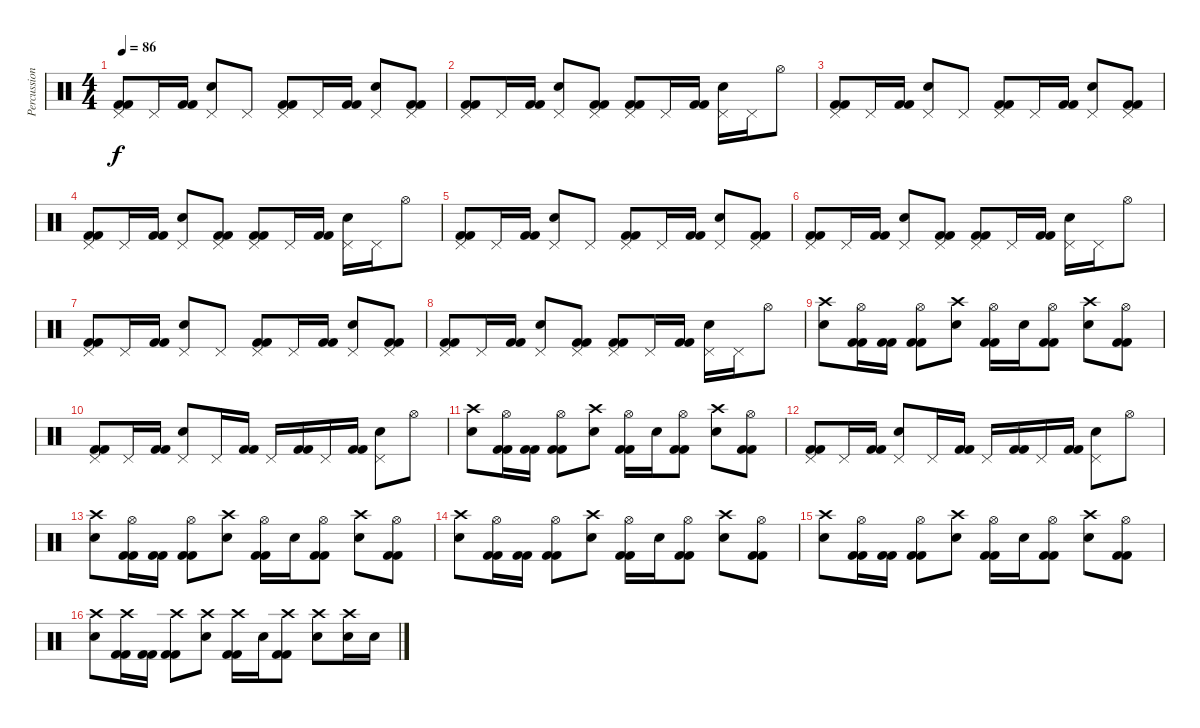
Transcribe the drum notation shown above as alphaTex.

\track ("Percussion" "Percussion") {instrument percussion}
\staff {score}
\articulation defaults
\ts (4 4)
\tempo 86
\clef neutral
\ks c
("Pedal Hi-Hat (hit)" "Kick (hit) 2" "Kick (hit) 2").8{dy f} "Pedal Hi-Hat (hit)".16 ("Kick (hit) 2" "Kick (hit) 2").16 ("Pedal Hi-Hat (hit)" "Snare (hit) 2").8 "Pedal Hi-Hat (hit)".8 ("Pedal Hi-Hat (hit)" "Kick (hit) 2" "Kick (hit) 2").8 "Pedal Hi-Hat (hit)".16 ("Kick (hit) 2" "Kick (hit) 2").16 ("Pedal Hi-Hat (hit)" "Snare (hit) 2").8 ("Pedal Hi-Hat (hit)" "Kick (hit) 2" "Kick (hit) 2").8 |
("Pedal Hi-Hat (hit)" "Kick (hit) 2" "Kick (hit) 2").8 "Pedal Hi-Hat (hit)".16 ("Kick (hit) 2" "Kick (hit) 2").16 ("Pedal Hi-Hat (hit)" "Snare (hit) 2").8 ("Pedal Hi-Hat (hit)" "Kick (hit) 2" "Kick (hit) 2").8 ("Pedal Hi-Hat (hit)" "Kick (hit) 2" "Kick (hit) 2").8 "Pedal Hi-Hat (hit)".16 ("Kick (hit) 2" "Kick (hit) 2").16 ("Pedal Hi-Hat (hit)" "Snare (hit) 2").16 "Pedal Hi-Hat (hit)".16 "Hi-Hat (open)".8 |
("Pedal Hi-Hat (hit)" "Kick (hit) 2" "Kick (hit) 2").8 "Pedal Hi-Hat (hit)".16 ("Kick (hit) 2" "Kick (hit) 2").16 ("Pedal Hi-Hat (hit)" "Snare (hit) 2").8 "Pedal Hi-Hat (hit)".8 ("Pedal Hi-Hat (hit)" "Kick (hit) 2" "Kick (hit) 2").8 "Pedal Hi-Hat (hit)".16 ("Kick (hit) 2" "Kick (hit) 2").16 ("Pedal Hi-Hat (hit)" "Snare (hit) 2").8 ("Pedal Hi-Hat (hit)" "Kick (hit) 2" "Kick (hit) 2").8 |
("Pedal Hi-Hat (hit)" "Kick (hit) 2" "Kick (hit) 2").8 "Pedal Hi-Hat (hit)".16 ("Kick (hit) 2" "Kick (hit) 2").16 ("Pedal Hi-Hat (hit)" "Snare (hit) 2").8 ("Pedal Hi-Hat (hit)" "Kick (hit) 2" "Kick (hit) 2").8 ("Pedal Hi-Hat (hit)" "Kick (hit) 2" "Kick (hit) 2").8 "Pedal Hi-Hat (hit)".16 ("Kick (hit) 2" "Kick (hit) 2").16 ("Pedal Hi-Hat (hit)" "Snare (hit) 2").16 "Pedal Hi-Hat (hit)".16 "Hi-Hat (open)".8 |
("Pedal Hi-Hat (hit)" "Kick (hit) 2" "Kick (hit) 2").8 "Pedal Hi-Hat (hit)".16 ("Kick (hit) 2" "Kick (hit) 2").16 ("Pedal Hi-Hat (hit)" "Snare (hit) 2").8 "Pedal Hi-Hat (hit)".8 ("Pedal Hi-Hat (hit)" "Kick (hit) 2" "Kick (hit) 2").8 "Pedal Hi-Hat (hit)".16 ("Kick (hit) 2" "Kick (hit) 2").16 ("Pedal Hi-Hat (hit)" "Snare (hit) 2").8 ("Pedal Hi-Hat (hit)" "Kick (hit) 2" "Kick (hit) 2").8 |
("Pedal Hi-Hat (hit)" "Kick (hit) 2" "Kick (hit) 2").8 "Pedal Hi-Hat (hit)".16 ("Kick (hit) 2" "Kick (hit) 2").16 ("Pedal Hi-Hat (hit)" "Snare (hit) 2").8 ("Pedal Hi-Hat (hit)" "Kick (hit) 2" "Kick (hit) 2").8 ("Pedal Hi-Hat (hit)" "Kick (hit) 2" "Kick (hit) 2").8 "Pedal Hi-Hat (hit)".16 ("Kick (hit) 2" "Kick (hit) 2").16 ("Pedal Hi-Hat (hit)" "Snare (hit) 2").16 "Pedal Hi-Hat (hit)".16 "Hi-Hat (open)".8 |
("Pedal Hi-Hat (hit)" "Kick (hit) 2" "Kick (hit) 2").8 "Pedal Hi-Hat (hit)".16 ("Kick (hit) 2" "Kick (hit) 2").16 ("Pedal Hi-Hat (hit)" "Snare (hit) 2").8 "Pedal Hi-Hat (hit)".8 ("Pedal Hi-Hat (hit)" "Kick (hit) 2" "Kick (hit) 2").8 "Pedal Hi-Hat (hit)".16 ("Kick (hit) 2" "Kick (hit) 2").16 ("Pedal Hi-Hat (hit)" "Snare (hit) 2").8 ("Pedal Hi-Hat (hit)" "Kick (hit) 2" "Kick (hit) 2").8 |
("Pedal Hi-Hat (hit)" "Kick (hit) 2" "Kick (hit) 2").8 "Pedal Hi-Hat (hit)".16 ("Kick (hit) 2" "Kick (hit) 2").16 ("Pedal Hi-Hat (hit)" "Snare (hit) 2").8 ("Pedal Hi-Hat (hit)" "Kick (hit) 2" "Kick (hit) 2").8 ("Pedal Hi-Hat (hit)" "Kick (hit) 2" "Kick (hit) 2").8 "Pedal Hi-Hat (hit)".16 ("Kick (hit) 2" "Kick (hit) 2").16 ("Pedal Hi-Hat (hit)" "Snare (hit) 2").16 "Pedal Hi-Hat (hit)".16 "Hi-Hat (open)".8 |
("Crash high (hit)" "Snare (hit) 2").8 ("Hi-Hat (open)" "Kick (hit) 2" "Kick (hit) 2").16 ("Kick (hit) 2" "Kick (hit) 2").16 ("Hi-Hat (open)" "Kick (hit) 2" "Kick (hit) 2").8 ("Crash high (hit)" "Snare (hit) 2").8 ("Hi-Hat (open)" "Kick (hit) 2" "Kick (hit) 2").16 "Snare (hit) 2".16 ("Hi-Hat (open)" "Kick (hit) 2" "Kick (hit) 2").8 ("Crash high (hit)" "Snare (hit) 2").8 ("Hi-Hat (open)" "Kick (hit) 2" "Kick (hit) 2").8 |
("Pedal Hi-Hat (hit)" "Kick (hit) 2" "Kick (hit) 2").8 "Pedal Hi-Hat (hit)".16 ("Kick (hit) 2" "Kick (hit) 2").16 ("Pedal Hi-Hat (hit)" "Snare (hit) 2").8 "Pedal Hi-Hat (hit)".16 ("Kick (hit) 2" "Kick (hit) 2").16 "Pedal Hi-Hat (hit)".16 ("Kick (hit) 2" "Kick (hit) 2").16 "Pedal Hi-Hat (hit)".16 ("Kick (hit) 2" "Kick (hit) 2").16 ("Pedal Hi-Hat (hit)" "Snare (hit) 2").8 "Hi-Hat (open)".8 |
("Crash high (hit)" "Snare (hit) 2").8 ("Hi-Hat (open)" "Kick (hit) 2" "Kick (hit) 2").16 ("Kick (hit) 2" "Kick (hit) 2").16 ("Hi-Hat (open)" "Kick (hit) 2" "Kick (hit) 2").8 ("Crash high (hit)" "Snare (hit) 2").8 ("Hi-Hat (open)" "Kick (hit) 2" "Kick (hit) 2").16 "Snare (hit) 2".16 ("Hi-Hat (open)" "Kick (hit) 2" "Kick (hit) 2").8 ("Crash high (hit)" "Snare (hit) 2").8 ("Hi-Hat (open)" "Kick (hit) 2" "Kick (hit) 2").8 |
("Pedal Hi-Hat (hit)" "Kick (hit) 2" "Kick (hit) 2").8 "Pedal Hi-Hat (hit)".16 ("Kick (hit) 2" "Kick (hit) 2").16 ("Pedal Hi-Hat (hit)" "Snare (hit) 2").8 "Pedal Hi-Hat (hit)".16 ("Kick (hit) 2" "Kick (hit) 2").16 "Pedal Hi-Hat (hit)".16 ("Kick (hit) 2" "Kick (hit) 2").16 "Pedal Hi-Hat (hit)".16 ("Kick (hit) 2" "Kick (hit) 2").16 ("Pedal Hi-Hat (hit)" "Snare (hit) 2").8 "Hi-Hat (open)".8 |
("Crash high (hit)" "Snare (hit) 2").8 ("Hi-Hat (open)" "Kick (hit) 2" "Kick (hit) 2").16 ("Kick (hit) 2" "Kick (hit) 2").16 ("Hi-Hat (open)" "Kick (hit) 2" "Kick (hit) 2").8 ("Crash high (hit)" "Snare (hit) 2").8 ("Hi-Hat (open)" "Kick (hit) 2" "Kick (hit) 2").16 "Snare (hit) 2".16 ("Hi-Hat (open)" "Kick (hit) 2" "Kick (hit) 2").8 ("Crash high (hit)" "Snare (hit) 2").8 ("Hi-Hat (open)" "Kick (hit) 2" "Kick (hit) 2").8 |
("Crash high (hit)" "Snare (hit) 2").8 ("Hi-Hat (open)" "Kick (hit) 2" "Kick (hit) 2").16 ("Kick (hit) 2" "Kick (hit) 2").16 ("Hi-Hat (open)" "Kick (hit) 2" "Kick (hit) 2").8 ("Crash high (hit)" "Snare (hit) 2").8 ("Hi-Hat (open)" "Kick (hit) 2" "Kick (hit) 2").16 "Snare (hit) 2".16 ("Hi-Hat (open)" "Kick (hit) 2" "Kick (hit) 2").8 ("Crash high (hit)" "Snare (hit) 2").8 ("Hi-Hat (open)" "Kick (hit) 2" "Kick (hit) 2").8 |
("Crash high (hit)" "Snare (hit) 2").8 ("Hi-Hat (open)" "Kick (hit) 2" "Kick (hit) 2").16 ("Kick (hit) 2" "Kick (hit) 2").16 ("Hi-Hat (open)" "Kick (hit) 2" "Kick (hit) 2").8 ("Crash high (hit)" "Snare (hit) 2").8 ("Hi-Hat (open)" "Kick (hit) 2" "Kick (hit) 2").16 "Snare (hit) 2".16 ("Hi-Hat (open)" "Kick (hit) 2" "Kick (hit) 2").8 ("Crash high (hit)" "Snare (hit) 2").8 ("Hi-Hat (open)" "Kick (hit) 2" "Kick (hit) 2").8 |
("Crash high (hit)" "Snare (hit) 2").8 ("Crash high (hit)" "Kick (hit) 2" "Kick (hit) 2").16 ("Kick (hit) 2" "Kick (hit) 2").16 ("Crash high (hit)" "Kick (hit) 2" "Kick (hit) 2").8 ("Crash high (hit)" "Snare (hit) 2").8 ("Crash high (hit)" "Kick (hit) 2" "Kick (hit) 2").16 "Snare (hit) 2".16 ("Crash high (hit)" "Kick (hit) 2" "Kick (hit) 2").8 ("Crash high (hit)" "Snare (hit) 2").8 ("Crash high (hit)" "Snare (hit) 2").16 "Snare (hit) 2".16
